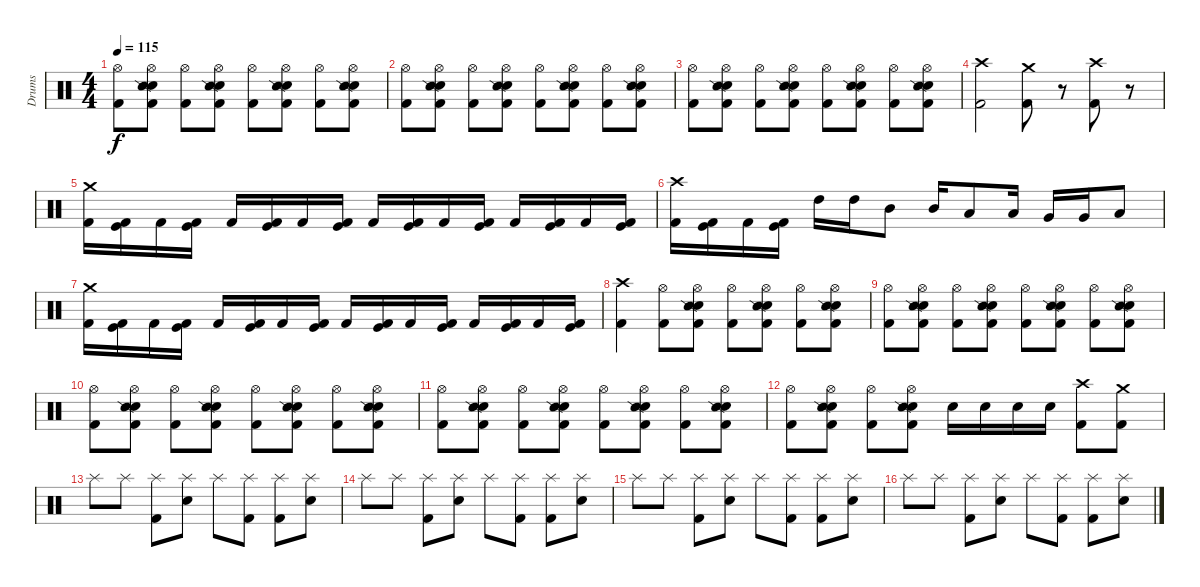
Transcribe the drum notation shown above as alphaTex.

\track ("Drums" "Drums") {instrument percussion}
\staff {score}
\articulation defaults
\ts (4 4)
\tempo 115
\clef neutral
\ks c
("Hi-Hat (open)" "Kick (hit) 2").8{dy f} ("Hi-Hat (open)" "Electric Snare (hit)" "Snare (side stick) 2" "Kick (hit) 2").8 ("Hi-Hat (open)" "Kick (hit) 2").8 ("Hi-Hat (open)" "Electric Snare (hit)" "Snare (side stick) 2" "Kick (hit) 2").8 ("Hi-Hat (open)" "Kick (hit) 2").8 ("Hi-Hat (open)" "Electric Snare (hit)" "Snare (side stick) 2" "Kick (hit) 2").8 ("Hi-Hat (open)" "Kick (hit) 2").8 ("Hi-Hat (open)" "Electric Snare (hit)" "Snare (side stick) 2" "Kick (hit) 2").8 |
("Hi-Hat (open)" "Kick (hit) 2").8 ("Hi-Hat (open)" "Electric Snare (hit)" "Snare (side stick) 2" "Kick (hit) 2").8 ("Hi-Hat (open)" "Kick (hit) 2").8 ("Hi-Hat (open)" "Electric Snare (hit)" "Snare (side stick) 2" "Kick (hit) 2").8 ("Hi-Hat (open)" "Kick (hit) 2").8 ("Hi-Hat (open)" "Electric Snare (hit)" "Snare (side stick) 2" "Kick (hit) 2").8 ("Hi-Hat (open)" "Kick (hit) 2").8 ("Hi-Hat (open)" "Electric Snare (hit)" "Snare (side stick) 2" "Kick (hit) 2").8 |
("Hi-Hat (open)" "Kick (hit) 2").8 ("Hi-Hat (open)" "Electric Snare (hit)" "Snare (side stick) 2" "Kick (hit) 2").8 ("Hi-Hat (open)" "Kick (hit) 2").8 ("Hi-Hat (open)" "Electric Snare (hit)" "Snare (side stick) 2" "Kick (hit) 2").8 ("Hi-Hat (open)" "Kick (hit) 2").8 ("Hi-Hat (open)" "Electric Snare (hit)" "Snare (side stick) 2" "Kick (hit) 2").8 ("Hi-Hat (open)" "Kick (hit) 2").8 ("Hi-Hat (open)" "Electric Snare (hit)" "Snare (side stick) 2" "Kick (hit) 2").8 |
("Crash high (hit)" "Kick (hit) 2").2 ("Crash medium (hit)" "Kick (hit) 2").8 r.8 ("Crash high (hit)" "Kick (hit) 2").8 r.8 |
("Crash medium (hit)" "Kick (hit) 2").16 ("Kick (hit)" "Kick (hit) 2").16 "Kick (hit) 2".16 ("Kick (hit)" "Kick (hit) 2").16 "Kick (hit) 2".16 ("Kick (hit)" "Kick (hit) 2").16 "Kick (hit) 2".16 ("Kick (hit)" "Kick (hit) 2").16 "Kick (hit) 2".16 ("Kick (hit)" "Kick (hit) 2").16 "Kick (hit) 2".16 ("Kick (hit)" "Kick (hit) 2").16 "Kick (hit) 2".16 ("Kick (hit)" "Kick (hit) 2").16 "Kick (hit) 2".16 ("Kick (hit)" "Kick (hit) 2").16 |
("Crash high (hit)" "Kick (hit) 2").16 ("Kick (hit)" "Kick (hit) 2").16 "Kick (hit) 2".16 ("Kick (hit)" "Kick (hit) 2").16 "High Tom (hit)".16 "High Tom (hit)".16 "Mid Tom (hit)".8 "Mid Tom (hit)".16 "Low Tom (hit)".8 "Low Tom (hit)".16 "Very Low Tom (hit)".16 "Very Low Tom (hit)".16 "Low Floor Tom (hit)".8 |
("Crash medium (hit)" "Kick (hit) 2").16 ("Kick (hit)" "Kick (hit) 2").16 "Kick (hit) 2".16 ("Kick (hit)" "Kick (hit) 2").16 "Kick (hit) 2".16 ("Kick (hit)" "Kick (hit) 2").16 "Kick (hit) 2".16 ("Kick (hit)" "Kick (hit) 2").16 "Kick (hit) 2".16 ("Kick (hit)" "Kick (hit) 2").16 "Kick (hit) 2".16 ("Kick (hit)" "Kick (hit) 2").16 "Kick (hit) 2".16 ("Kick (hit)" "Kick (hit) 2").16 "Kick (hit) 2".16 ("Kick (hit)" "Kick (hit) 2").16 |
("Crash high (hit)" "Kick (hit) 2").4 ("Hi-Hat (open)" "Kick (hit) 2").8 ("Hi-Hat (open)" "Electric Snare (hit)" "Snare (side stick) 2" "Kick (hit) 2").8 ("Hi-Hat (open)" "Kick (hit) 2").8 ("Hi-Hat (open)" "Electric Snare (hit)" "Snare (side stick) 2" "Kick (hit) 2").8 ("Hi-Hat (open)" "Kick (hit) 2").8 ("Hi-Hat (open)" "Electric Snare (hit)" "Snare (side stick) 2" "Kick (hit) 2").8 |
("Hi-Hat (open)" "Kick (hit) 2").8 ("Hi-Hat (open)" "Electric Snare (hit)" "Snare (side stick) 2" "Kick (hit) 2").8 ("Hi-Hat (open)" "Kick (hit) 2").8 ("Hi-Hat (open)" "Electric Snare (hit)" "Snare (side stick) 2" "Kick (hit) 2").8 ("Hi-Hat (open)" "Kick (hit) 2").8 ("Hi-Hat (open)" "Electric Snare (hit)" "Snare (side stick) 2" "Kick (hit) 2").8 ("Hi-Hat (open)" "Kick (hit) 2").8 ("Hi-Hat (open)" "Electric Snare (hit)" "Snare (side stick) 2" "Kick (hit) 2").8 |
("Hi-Hat (open)" "Kick (hit) 2").8 ("Hi-Hat (open)" "Electric Snare (hit)" "Snare (side stick) 2" "Kick (hit) 2").8 ("Hi-Hat (open)" "Kick (hit) 2").8 ("Hi-Hat (open)" "Electric Snare (hit)" "Snare (side stick) 2" "Kick (hit) 2").8 ("Hi-Hat (open)" "Kick (hit) 2").8 ("Hi-Hat (open)" "Electric Snare (hit)" "Snare (side stick) 2" "Kick (hit) 2").8 ("Hi-Hat (open)" "Kick (hit) 2").8 ("Hi-Hat (open)" "Electric Snare (hit)" "Snare (side stick) 2" "Kick (hit) 2").8 |
("Hi-Hat (open)" "Kick (hit) 2").8 ("Hi-Hat (open)" "Electric Snare (hit)" "Snare (side stick) 2" "Kick (hit) 2").8 ("Hi-Hat (open)" "Kick (hit) 2").8 ("Hi-Hat (open)" "Electric Snare (hit)" "Snare (side stick) 2" "Kick (hit) 2").8 ("Hi-Hat (open)" "Kick (hit) 2").8 ("Hi-Hat (open)" "Electric Snare (hit)" "Snare (side stick) 2" "Kick (hit) 2").8 ("Hi-Hat (open)" "Kick (hit) 2").8 ("Hi-Hat (open)" "Electric Snare (hit)" "Snare (side stick) 2" "Kick (hit) 2").8 |
("Hi-Hat (open)" "Kick (hit) 2").8 ("Hi-Hat (open)" "Electric Snare (hit)" "Snare (side stick) 2" "Kick (hit) 2").8 ("Hi-Hat (open)" "Kick (hit) 2").8 ("Hi-Hat (open)" "Electric Snare (hit)" "Snare (side stick) 2" "Kick (hit) 2").8 "Electric Snare (hit)".16 "Electric Snare (hit)".16 "Electric Snare (hit)".16 "Electric Snare (hit)".16 ("Crash high (hit)" "Kick (hit) 2").8 ("Crash medium (hit)" "Kick (hit) 2").8 |
"Splash (hit)".8 "Splash (hit)".8 ("Splash (hit)" "Kick (hit) 2").8 ("Splash (hit)" "Electric Snare (hit)").8 "Splash (hit)".8 ("Splash (hit)" "Kick (hit) 2").8 ("Splash (hit)" "Kick (hit) 2").8 ("Splash (hit)" "Electric Snare (hit)").8 |
"Splash (hit)".8 "Splash (hit)".8 ("Splash (hit)" "Kick (hit) 2").8 ("Splash (hit)" "Electric Snare (hit)").8 "Splash (hit)".8 ("Splash (hit)" "Kick (hit) 2").8 ("Splash (hit)" "Kick (hit) 2").8 ("Splash (hit)" "Electric Snare (hit)").8 |
"Splash (hit)".8 "Splash (hit)".8 ("Splash (hit)" "Kick (hit) 2").8 ("Splash (hit)" "Electric Snare (hit)").8 "Splash (hit)".8 ("Splash (hit)" "Kick (hit) 2").8 ("Splash (hit)" "Kick (hit) 2").8 ("Splash (hit)" "Electric Snare (hit)").8 |
"Splash (hit)".8 "Splash (hit)".8 ("Splash (hit)" "Kick (hit) 2").8 ("Splash (hit)" "Electric Snare (hit)").8 "Splash (hit)".8 ("Splash (hit)" "Kick (hit) 2").8 ("Splash (hit)" "Kick (hit) 2").8 ("Splash (hit)" "Electric Snare (hit)").8
